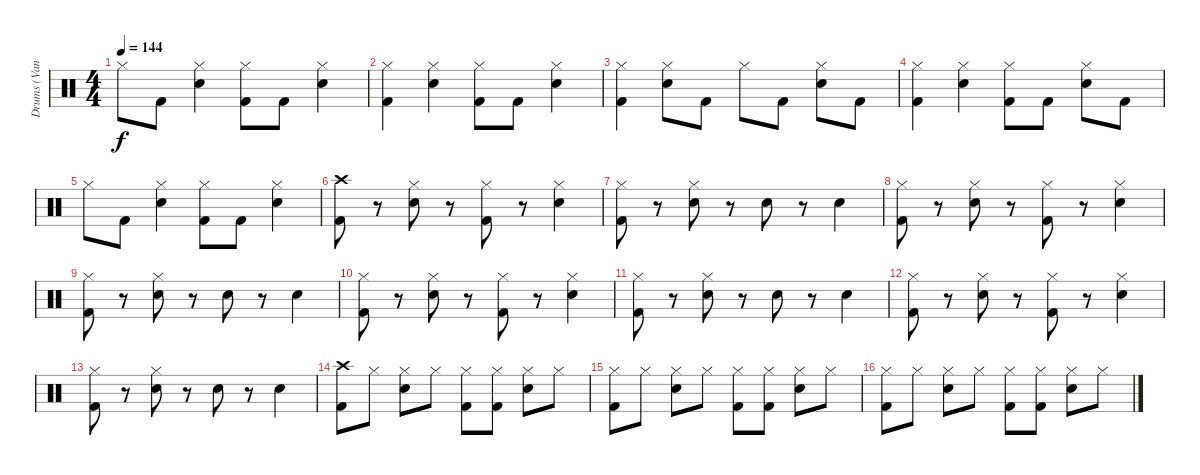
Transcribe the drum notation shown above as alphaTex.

\track ("Drums (Vandel)" "Drums (Van") {instrument percussion}
\staff {score}
\articulation defaults
\ts (4 4)
\tempo 144
\clef neutral
\ks c "Hi-Hat (closed)".8{dy f} "Kick (hit) 2".8
("Hi-Hat (closed)" "Snare (hit) 2").4 ("Hi-Hat (closed)" "Kick (hit) 2").8 "Kick (hit) 2".8 ("Hi-Hat (closed)" "Snare (hit) 2").4 |
("Hi-Hat (closed)" "Kick (hit) 2").4 ("Hi-Hat (closed)" "Snare (hit) 2").4 ("Hi-Hat (closed)" "Kick (hit) 2").8 "Kick (hit) 2".8 ("Hi-Hat (closed)" "Snare (hit) 2").4 |
("Hi-Hat (closed)" "Kick (hit) 2").4 ("Hi-Hat (closed)" "Snare (hit) 2").8 "Kick (hit) 2".8 "Hi-Hat (closed)".8 "Kick (hit) 2".8 ("Hi-Hat (closed)" "Snare (hit) 2").8 "Kick (hit) 2".8 |
("Hi-Hat (closed)" "Kick (hit) 2").4 ("Hi-Hat (closed)" "Snare (hit) 2").4 ("Hi-Hat (closed)" "Kick (hit) 2").8 "Kick (hit) 2".8 ("Hi-Hat (closed)" "Snare (hit) 2").8 "Kick (hit) 2".8 |
"Hi-Hat (closed)".8 "Kick (hit) 2".8 ("Hi-Hat (closed)" "Snare (hit) 2").4 ("Hi-Hat (closed)" "Kick (hit) 2").8 "Kick (hit) 2".8 ("Hi-Hat (closed)" "Snare (hit) 2").4 |
("Crash high (hit)" "Kick (hit) 2").8 r.8 ("Hi-Hat (closed)" "Snare (hit) 2").8 r.8 ("Hi-Hat (closed)" "Kick (hit) 2").8 r.8 ("Hi-Hat (closed)" "Snare (hit) 2").4 |
("Hi-Hat (closed)" "Kick (hit) 2").8 r.8 ("Hi-Hat (closed)" "Snare (hit) 2").8 r.8 "Snare (hit) 2".8 r.8 "Snare (hit) 2".4 |
("Hi-Hat (closed)" "Kick (hit) 2").8 r.8 ("Hi-Hat (closed)" "Snare (hit) 2").8 r.8 ("Hi-Hat (closed)" "Kick (hit) 2").8 r.8 ("Hi-Hat (closed)" "Snare (hit) 2").4 |
("Hi-Hat (closed)" "Kick (hit) 2").8 r.8 ("Hi-Hat (closed)" "Snare (hit) 2").8 r.8 "Snare (hit) 2".8 r.8 "Snare (hit) 2".4 |
("Hi-Hat (closed)" "Kick (hit) 2").8 r.8 ("Hi-Hat (closed)" "Snare (hit) 2").8 r.8 ("Hi-Hat (closed)" "Kick (hit) 2").8 r.8 ("Hi-Hat (closed)" "Snare (hit) 2").4 |
("Hi-Hat (closed)" "Kick (hit) 2").8 r.8 ("Hi-Hat (closed)" "Snare (hit) 2").8 r.8 "Snare (hit) 2".8 r.8 "Snare (hit) 2".4 |
("Hi-Hat (closed)" "Kick (hit) 2").8 r.8 ("Hi-Hat (closed)" "Snare (hit) 2").8 r.8 ("Hi-Hat (closed)" "Kick (hit) 2").8 r.8 ("Hi-Hat (closed)" "Snare (hit) 2").4 |
("Hi-Hat (closed)" "Kick (hit) 2").8 r.8 ("Hi-Hat (closed)" "Snare (hit) 2").8 r.8 "Snare (hit) 2".8 r.8 "Snare (hit) 2".4 |
("Crash high (hit)" "Kick (hit) 2").8 "Hi-Hat (closed)".8 ("Hi-Hat (closed)" "Snare (hit) 2").8 "Hi-Hat (closed)".8 ("Hi-Hat (closed)" "Kick (hit) 2").8 ("Hi-Hat (closed)" "Kick (hit) 2").8 ("Hi-Hat (closed)" "Snare (hit) 2").8 "Hi-Hat (closed)".8 |
("Hi-Hat (closed)" "Kick (hit) 2").8 "Hi-Hat (closed)".8 ("Hi-Hat (closed)" "Snare (hit) 2").8 "Hi-Hat (closed)".8 ("Hi-Hat (closed)" "Kick (hit) 2").8 ("Hi-Hat (closed)" "Kick (hit) 2").8 ("Hi-Hat (closed)" "Snare (hit) 2").8 "Hi-Hat (closed)".8 |
("Hi-Hat (closed)" "Kick (hit) 2").8 "Hi-Hat (closed)".8 ("Hi-Hat (closed)" "Snare (hit) 2").8 "Hi-Hat (closed)".8 ("Hi-Hat (closed)" "Kick (hit) 2").8 ("Hi-Hat (closed)" "Kick (hit) 2").8 ("Hi-Hat (closed)" "Snare (hit) 2").8 "Hi-Hat (closed)".8
